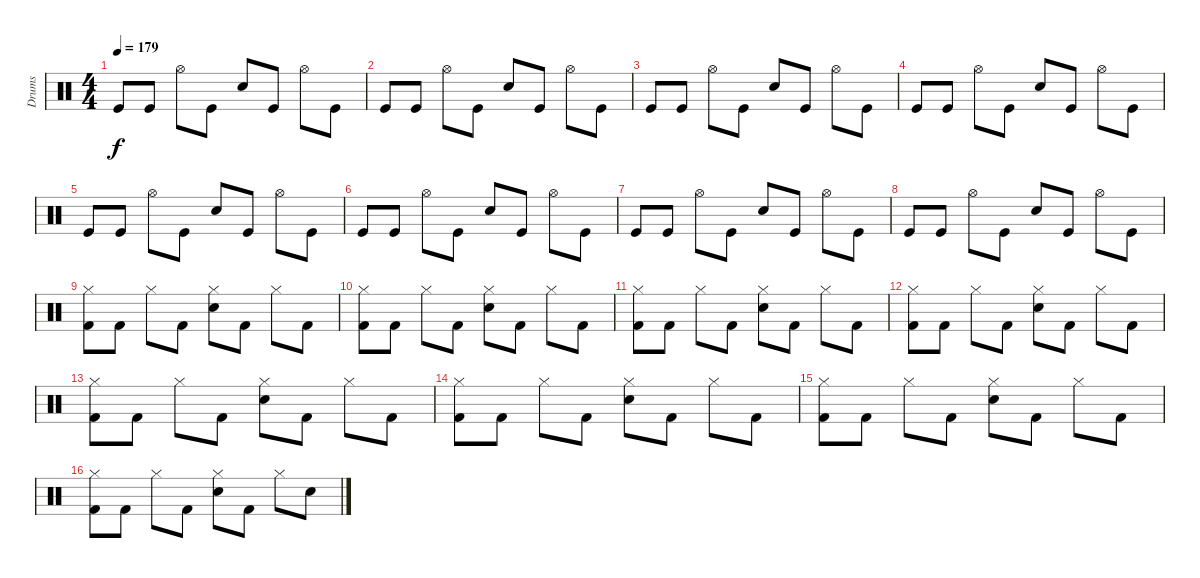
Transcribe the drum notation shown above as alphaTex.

\track ("Drums" "Drums") {instrument percussion}
\staff {score}
\articulation defaults
\ts (4 4)
\tempo 179
\clef neutral
\ks c "Kick (hit)".8{dy f volume 7} "Kick (hit)".8 "Hi-Hat (open)".8 "Kick (hit)".8 "Snare (hit) 2".8 "Kick (hit)".8 "Hi-Hat (open)".8 "Kick (hit)".8
|
"Kick (hit)".8 "Kick (hit)".8 "Hi-Hat (open)".8 "Kick (hit)".8 "Snare (hit) 2".8 "Kick (hit)".8 "Hi-Hat (open)".8 "Kick (hit)".8 |
"Kick (hit)".8 "Kick (hit)".8 "Hi-Hat (open)".8 "Kick (hit)".8 "Snare (hit) 2".8 "Kick (hit)".8 "Hi-Hat (open)".8 "Kick (hit)".8 |
"Kick (hit)".8 "Kick (hit)".8 "Hi-Hat (open)".8 "Kick (hit)".8 "Snare (hit) 2".8 "Kick (hit)".8 "Hi-Hat (open)".8 "Kick (hit)".8 |
"Kick (hit)".8 "Kick (hit)".8 "Hi-Hat (open)".8 "Kick (hit)".8 "Snare (hit) 2".8 "Kick (hit)".8 "Hi-Hat (open)".8 "Kick (hit)".8 |
"Kick (hit)".8 "Kick (hit)".8 "Hi-Hat (open)".8 "Kick (hit)".8 "Snare (hit) 2".8 "Kick (hit)".8 "Hi-Hat (open)".8 "Kick (hit)".8 |
"Kick (hit)".8 "Kick (hit)".8 "Hi-Hat (open)".8 "Kick (hit)".8 "Snare (hit) 2".8 "Kick (hit)".8 "Hi-Hat (open)".8 "Kick (hit)".8 |
"Kick (hit)".8 "Kick (hit)".8 "Hi-Hat (open)".8 "Kick (hit)".8 "Snare (hit) 2".8 "Kick (hit)".8 "Hi-Hat (open)".8 "Kick (hit)".8 |
("Hi-Hat (closed)" "Kick (hit) 2").8{volume 16} "Kick (hit) 2".8 "Hi-Hat (closed)".8 "Kick (hit) 2".8 ("Hi-Hat (closed)" "Electric Snare (hit)").8 "Kick (hit) 2".8 "Hi-Hat (closed)".8 "Kick (hit) 2".8 |
("Hi-Hat (closed)" "Kick (hit) 2").8 "Kick (hit) 2".8 "Hi-Hat (closed)".8 "Kick (hit) 2".8 ("Hi-Hat (closed)" "Electric Snare (hit)").8 "Kick (hit) 2".8 "Hi-Hat (closed)".8 "Kick (hit) 2".8 |
("Hi-Hat (closed)" "Kick (hit) 2").8 "Kick (hit) 2".8 "Hi-Hat (closed)".8 "Kick (hit) 2".8 ("Hi-Hat (closed)" "Electric Snare (hit)").8 "Kick (hit) 2".8 "Hi-Hat (closed)".8 "Kick (hit) 2".8 |
("Hi-Hat (closed)" "Kick (hit) 2").8 "Kick (hit) 2".8 "Hi-Hat (closed)".8 "Kick (hit) 2".8 ("Hi-Hat (closed)" "Electric Snare (hit)").8 "Kick (hit) 2".8 "Hi-Hat (closed)".8 "Kick (hit) 2".8 |
("Hi-Hat (closed)" "Kick (hit) 2").8 "Kick (hit) 2".8 "Hi-Hat (closed)".8 "Kick (hit) 2".8 ("Hi-Hat (closed)" "Electric Snare (hit)").8 "Kick (hit) 2".8 "Hi-Hat (closed)".8 "Kick (hit) 2".8 |
("Hi-Hat (closed)" "Kick (hit) 2").8 "Kick (hit) 2".8 "Hi-Hat (closed)".8 "Kick (hit) 2".8 ("Hi-Hat (closed)" "Electric Snare (hit)").8 "Kick (hit) 2".8 "Hi-Hat (closed)".8 "Kick (hit) 2".8 |
("Hi-Hat (closed)" "Kick (hit) 2").8 "Kick (hit) 2".8 "Hi-Hat (closed)".8 "Kick (hit) 2".8 ("Hi-Hat (closed)" "Electric Snare (hit)").8 "Kick (hit) 2".8 "Hi-Hat (closed)".8 "Kick (hit) 2".8 |
("Hi-Hat (closed)" "Kick (hit) 2").8 "Kick (hit) 2".8 "Hi-Hat (closed)".8 "Kick (hit) 2".8 ("Hi-Hat (closed)" "Electric Snare (hit)").8 "Kick (hit) 2".8 "Hi-Hat (closed)".8 "Electric Snare (hit)".8
